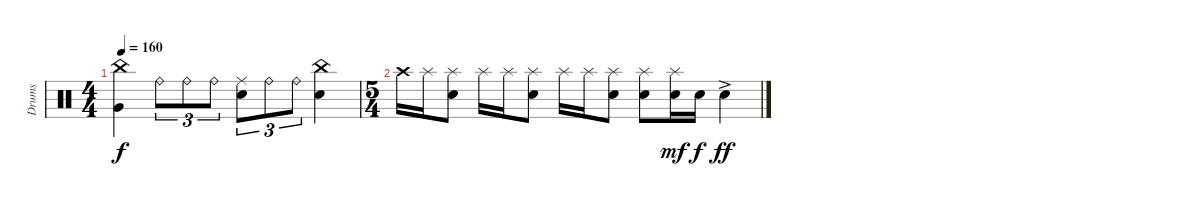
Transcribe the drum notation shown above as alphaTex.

\track ("Drums" "Drums") {instrument percussion}
\staff {score}
\articulation defaults
\ts (4 4)
\tempo 160
\clef neutral
\ks c
("China (hit)" "Very Low Tom (hit)").4{dy f} "Ride (bell)".8{tu (3 2)} "Ride (bell)".8{tu (3 2)} "Ride (bell)".8{tu (3 2)} ("Ride (middle)" "Electric Snare (hit)").8{tu (3 2)} "Ride (bell)".8{tu (3 2)} "Ride (bell)".8{tu (3 2)} ("China (hit)" "Electric Snare (hit)").4 |
\ts (5 4)
"Crash high (hit)".16 "Splash (hit)".16 ("Splash (hit)" "Electric Snare (hit)").8 "Splash (hit)".16 "Splash (hit)".16 ("Splash (hit)" "Electric Snare (hit)").8 "Splash (hit)".16 "Splash (hit)".16 ("Splash (hit)" "Electric Snare (hit)").8 ("Splash (hit)" "Electric Snare (hit)").8 ("Splash (hit)" "Electric Snare (hit)").16{dy mf} "Electric Snare (hit)".16{dy f} "Electric Snare (hit)"{ac}.4{dy ff}
